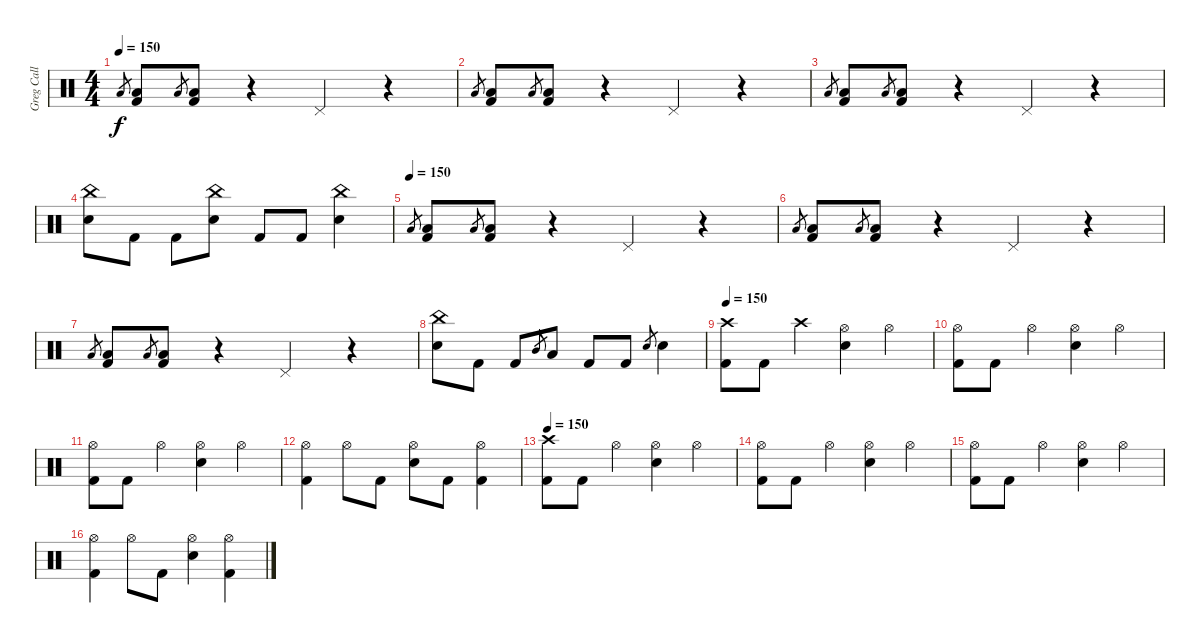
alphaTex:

\track ("Greg Call" "Greg Call") {instrument percussion}
\staff {score}
\articulation defaults
\ts (4 4)
\tempo 150
\clef neutral
\ks c "Low Floor Tom (hit)".8{gr dy f}
("Low Floor Tom (hit)" "Kick (hit) 2").8{volume 16} "Low Floor Tom (hit)".8{gr} ("Low Floor Tom (hit)" "Kick (hit) 2").8 r.4 "Pedal Hi-Hat (hit)".4 r.4 |
"Low Floor Tom (hit)".8{gr} ("Low Floor Tom (hit)" "Kick (hit) 2").8{volume 16} "Low Floor Tom (hit)".8{gr} ("Low Floor Tom (hit)" "Kick (hit) 2").8 r.4 "Pedal Hi-Hat (hit)".4 r.4 |
"Low Floor Tom (hit)".8{gr} ("Low Floor Tom (hit)" "Kick (hit) 2").8{volume 16} "Low Floor Tom (hit)".8{gr} ("Low Floor Tom (hit)" "Kick (hit) 2").8 r.4 "Pedal Hi-Hat (hit)".4 r.4 |
("China (hit)" "Snare (hit) 2").8 "Kick (hit) 2".8 "Kick (hit) 2".8 ("China (hit)" "Snare (hit) 2").8 "Kick (hit) 2".8 "Kick (hit) 2".8 ("China (hit)" "Snare (hit) 2").4 |
\tempo (150)
"Low Floor Tom (hit)".8{gr} ("Low Floor Tom (hit)" "Kick (hit) 2").8{volume 16} "Low Floor Tom (hit)".8{gr} ("Low Floor Tom (hit)" "Kick (hit) 2").8 r.4 "Pedal Hi-Hat (hit)".4 r.4 |
"Low Floor Tom (hit)".8{gr} ("Low Floor Tom (hit)" "Kick (hit) 2").8{volume 16} "Low Floor Tom (hit)".8{gr} ("Low Floor Tom (hit)" "Kick (hit) 2").8 r.4 "Pedal Hi-Hat (hit)".4 r.4 |
"Low Floor Tom (hit)".8{gr} ("Low Floor Tom (hit)" "Kick (hit) 2").8{volume 16} "Low Floor Tom (hit)".8{gr} ("Low Floor Tom (hit)" "Kick (hit) 2").8 r.4 "Pedal Hi-Hat (hit)".4 r.4 |
("China (hit)" "Snare (hit) 2").8 "Kick (hit) 2".8 "Kick (hit) 2".8 "Mid Tom (hit)".8{gr} "Low Tom (hit)".8 "Kick (hit) 2".8 "Kick (hit) 2".8 "Snare (hit) 2".8{gr} "Snare (hit) 2".4 |
\tempo 150
("Crash high (hit)" "Kick (hit) 2").8 "Kick (hit) 2".8 "Crash high (hit)".4 ("Hi-Hat (open)" "Snare (hit) 2").4 "Hi-Hat (open)".4 |
("Hi-Hat (open)" "Kick (hit) 2").8 "Kick (hit) 2".8 "Hi-Hat (open)".4 ("Hi-Hat (open)" "Snare (hit) 2").4 "Hi-Hat (open)".4 |
("Hi-Hat (open)" "Kick (hit) 2").8 "Kick (hit) 2".8 "Hi-Hat (open)".4 ("Hi-Hat (open)" "Snare (hit) 2").4 "Hi-Hat (open)".4 |
("Hi-Hat (open)" "Kick (hit) 2").4 "Hi-Hat (open)".8 "Kick (hit) 2".8 ("Hi-Hat (open)" "Snare (hit) 2").8 "Kick (hit) 2".8 ("Hi-Hat (open)" "Kick (hit) 2").4 |
\tempo 150
("Crash high (hit)" "Kick (hit) 2").8 "Kick (hit) 2".8 "Hi-Hat (open)".4 ("Hi-Hat (open)" "Snare (hit) 2").4 "Hi-Hat (open)".4 |
("Hi-Hat (open)" "Kick (hit) 2").8 "Kick (hit) 2".8 "Hi-Hat (open)".4 ("Hi-Hat (open)" "Snare (hit) 2").4 "Hi-Hat (open)".4 |
("Hi-Hat (open)" "Kick (hit) 2").8 "Kick (hit) 2".8 "Hi-Hat (open)".4 ("Hi-Hat (open)" "Snare (hit) 2").4 "Hi-Hat (open)".4 |
("Hi-Hat (open)" "Kick (hit) 2").4 "Hi-Hat (open)".8 "Kick (hit) 2".8 ("Hi-Hat (open)" "Snare (hit) 2").4 ("Hi-Hat (open)" "Kick (hit) 2").4
